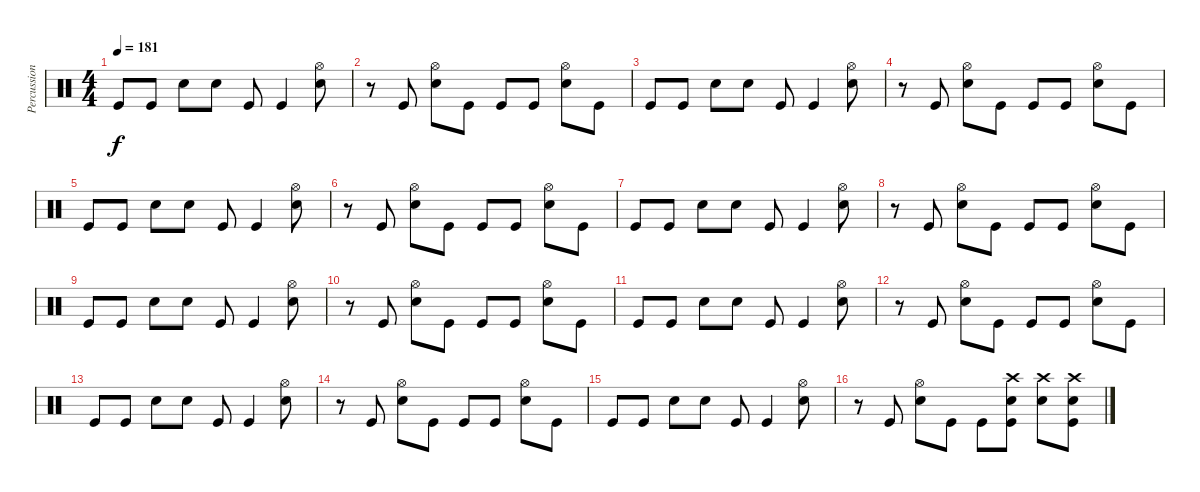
\track ("Percussion" "Percussion") {instrument percussion}
\staff {score}
\articulation defaults
\ts (4 4)
\tempo 181
\clef neutral
\ks c "Kick (hit)".8{dy f} "Kick (hit)".8 "Electric Snare (hit)".8 "Electric Snare (hit)".8 "Kick (hit)".8 "Kick (hit)".4
("Hi-Hat (open)" "Electric Snare (hit)").8 |
r.8 "Kick (hit)".8 ("Hi-Hat (open)" "Electric Snare (hit)").8 "Kick (hit)".8 "Kick (hit)".8 "Kick (hit)".8 ("Hi-Hat (open)" "Electric Snare (hit)").8 "Kick (hit)".8 |
"Kick (hit)".8 "Kick (hit)".8 "Electric Snare (hit)".8 "Electric Snare (hit)".8 "Kick (hit)".8 "Kick (hit)".4 ("Hi-Hat (open)" "Electric Snare (hit)").8 |
r.8 "Kick (hit)".8 ("Hi-Hat (open)" "Electric Snare (hit)").8 "Kick (hit)".8 "Kick (hit)".8 "Kick (hit)".8 ("Hi-Hat (open)" "Electric Snare (hit)").8 "Kick (hit)".8 |
"Kick (hit)".8 "Kick (hit)".8 "Electric Snare (hit)".8 "Electric Snare (hit)".8 "Kick (hit)".8 "Kick (hit)".4 ("Hi-Hat (open)" "Electric Snare (hit)").8 |
r.8 "Kick (hit)".8 ("Hi-Hat (open)" "Electric Snare (hit)").8 "Kick (hit)".8 "Kick (hit)".8 "Kick (hit)".8 ("Hi-Hat (open)" "Electric Snare (hit)").8 "Kick (hit)".8 |
"Kick (hit)".8 "Kick (hit)".8 "Electric Snare (hit)".8 "Electric Snare (hit)".8 "Kick (hit)".8 "Kick (hit)".4 ("Hi-Hat (open)" "Electric Snare (hit)").8 |
r.8 "Kick (hit)".8 ("Hi-Hat (open)" "Electric Snare (hit)").8 "Kick (hit)".8 "Kick (hit)".8 "Kick (hit)".8 ("Hi-Hat (open)" "Electric Snare (hit)").8 "Kick (hit)".8 |
"Kick (hit)".8 "Kick (hit)".8 "Electric Snare (hit)".8 "Electric Snare (hit)".8 "Kick (hit)".8 "Kick (hit)".4 ("Hi-Hat (open)" "Electric Snare (hit)").8 |
r.8 "Kick (hit)".8 ("Hi-Hat (open)" "Electric Snare (hit)").8 "Kick (hit)".8 "Kick (hit)".8 "Kick (hit)".8 ("Hi-Hat (open)" "Electric Snare (hit)").8 "Kick (hit)".8 |
"Kick (hit)".8 "Kick (hit)".8 "Electric Snare (hit)".8 "Electric Snare (hit)".8 "Kick (hit)".8 "Kick (hit)".4 ("Hi-Hat (open)" "Electric Snare (hit)").8 |
r.8 "Kick (hit)".8 ("Hi-Hat (open)" "Electric Snare (hit)").8 "Kick (hit)".8 "Kick (hit)".8 "Kick (hit)".8 ("Hi-Hat (open)" "Electric Snare (hit)").8 "Kick (hit)".8 |
"Kick (hit)".8 "Kick (hit)".8 "Electric Snare (hit)".8 "Electric Snare (hit)".8 "Kick (hit)".8 "Kick (hit)".4 ("Hi-Hat (open)" "Electric Snare (hit)").8 |
r.8 "Kick (hit)".8 ("Hi-Hat (open)" "Electric Snare (hit)").8 "Kick (hit)".8 "Kick (hit)".8 "Kick (hit)".8 ("Hi-Hat (open)" "Electric Snare (hit)").8 "Kick (hit)".8 |
"Kick (hit)".8 "Kick (hit)".8 "Electric Snare (hit)".8 "Electric Snare (hit)".8 "Kick (hit)".8 "Kick (hit)".4 ("Hi-Hat (open)" "Electric Snare (hit)").8 |
r.8 "Kick (hit)".8 ("Hi-Hat (open)" "Electric Snare (hit)").8 "Kick (hit)".8 "Kick (hit)".8 ("Crash high (hit)" "Electric Snare (hit)" "Kick (hit)").8 ("Crash high (hit)" "Electric Snare (hit)").8 ("Crash high (hit)" "Electric Snare (hit)" "Kick (hit)").8
